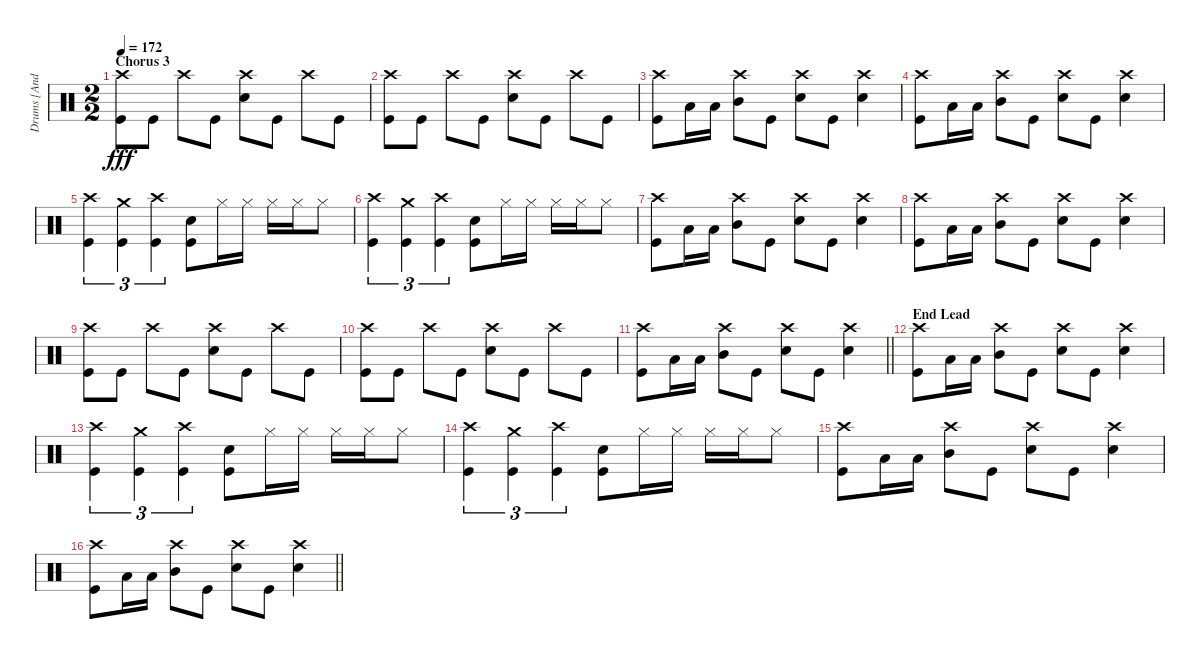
\track ("Drums [Andrew Forsman]" "Drums [And") {instrument percussion}
\staff {score}
\articulation defaults
\ts (2 2)
\section ("" "Chorus 3")
\tempo 172
\clef neutral
\ks c
("Crash high (hit)" "Kick (hit)").8{dy fff} "Kick (hit)".8 "Crash high (hit)".8 "Kick (hit)".8 ("Crash high (hit)" "Snare (hit) 2").8 "Kick (hit)".8 "Crash high (hit)".8 "Kick (hit)".8 |
("Crash high (hit)" "Kick (hit)").8 "Kick (hit)".8 "Crash high (hit)".8 "Kick (hit)".8 ("Crash high (hit)" "Snare (hit) 2").8 "Kick (hit)".8 "Crash high (hit)".8 "Kick (hit)".8 |
("Kick (hit)" "Crash high (hit)").8 "Low Tom (hit)".16 "Low Tom (hit)".16 ("Mid Tom (hit)" "Crash high (hit)").8 "Kick (hit)".8 ("Snare (hit) 2" "Crash high (hit)").8 "Kick (hit)".8 ("Snare (hit) 2" "Crash high (hit)").4 |
("Kick (hit)" "Crash high (hit)").8 "Low Tom (hit)".16 "Low Tom (hit)".16 ("Mid Tom (hit)" "Crash high (hit)").8 "Kick (hit)".8 ("Snare (hit) 2" "Crash high (hit)").8 "Kick (hit)".8 ("Snare (hit) 2" "Crash high (hit)").4 |
("Kick (hit)" "Crash high (hit)").4{tu (3 2)} ("Kick (hit)" "Crash medium (hit)").4{tu (3 2)} ("Kick (hit)" "Crash high (hit)").4{tu (3 2)} ("Snare (hit) 2" "Kick (hit)").8 "Hi-Hat (closed)".16 "Hi-Hat (closed)".16 "Hi-Hat (closed)".16 "Hi-Hat (closed)".16 "Hi-Hat (closed)".8 |
("Kick (hit)" "Crash high (hit)").4{tu (3 2)} ("Kick (hit)" "Crash medium (hit)").4{tu (3 2)} ("Kick (hit)" "Crash high (hit)").4{tu (3 2)} ("Snare (hit) 2" "Kick (hit)").8 "Hi-Hat (closed)".16 "Hi-Hat (closed)".16 "Hi-Hat (closed)".16 "Hi-Hat (closed)".16 "Hi-Hat (closed)".8 |
("Kick (hit)" "Crash high (hit)").8 "Low Tom (hit)".16 "Low Tom (hit)".16 ("Mid Tom (hit)" "Crash high (hit)").8 "Kick (hit)".8 ("Snare (hit) 2" "Crash high (hit)").8 "Kick (hit)".8 ("Snare (hit) 2" "Crash high (hit)").4 |
("Kick (hit)" "Crash high (hit)").8 "Low Tom (hit)".16 "Low Tom (hit)".16 ("Mid Tom (hit)" "Crash high (hit)").8 "Kick (hit)".8 ("Snare (hit) 2" "Crash high (hit)").8 "Kick (hit)".8 ("Snare (hit) 2" "Crash high (hit)").4 |
("Crash high (hit)" "Kick (hit)").8 "Kick (hit)".8 "Crash high (hit)".8 "Kick (hit)".8 ("Crash high (hit)" "Snare (hit) 2").8 "Kick (hit)".8 "Crash high (hit)".8 "Kick (hit)".8 |
("Crash high (hit)" "Kick (hit)").8 "Kick (hit)".8 "Crash high (hit)".8 "Kick (hit)".8 ("Crash high (hit)" "Snare (hit) 2").8 "Kick (hit)".8 "Crash high (hit)".8 "Kick (hit)".8 |
\barLineRight lightlight
("Kick (hit)" "Crash high (hit)").8 "Low Tom (hit)".16 "Low Tom (hit)".16 ("Mid Tom (hit)" "Crash high (hit)").8 "Kick (hit)".8 ("Snare (hit) 2" "Crash high (hit)").8 "Kick (hit)".8 ("Snare (hit) 2" "Crash high (hit)").4 |
\section ("" "End Lead")
("Kick (hit)" "Crash high (hit)").8 "Low Tom (hit)".16 "Low Tom (hit)".16 ("Mid Tom (hit)" "Crash high (hit)").8 "Kick (hit)".8 ("Snare (hit) 2" "Crash high (hit)").8 "Kick (hit)".8 ("Snare (hit) 2" "Crash high (hit)").4 |
("Kick (hit)" "Crash high (hit)").4{tu (3 2)} ("Kick (hit)" "Crash medium (hit)").4{tu (3 2)} ("Kick (hit)" "Crash high (hit)").4{tu (3 2)} ("Snare (hit) 2" "Kick (hit)").8 "Hi-Hat (closed)".16 "Hi-Hat (closed)".16 "Hi-Hat (closed)".16 "Hi-Hat (closed)".16 "Hi-Hat (closed)".8 |
("Kick (hit)" "Crash high (hit)").4{tu (3 2)} ("Kick (hit)" "Crash medium (hit)").4{tu (3 2)} ("Kick (hit)" "Crash high (hit)").4{tu (3 2)} ("Snare (hit) 2" "Kick (hit)").8 "Hi-Hat (closed)".16 "Hi-Hat (closed)".16 "Hi-Hat (closed)".16 "Hi-Hat (closed)".16 "Hi-Hat (closed)".8 |
("Kick (hit)" "Crash high (hit)").8 "Low Tom (hit)".16 "Low Tom (hit)".16 ("Mid Tom (hit)" "Crash high (hit)").8 "Kick (hit)".8 ("Snare (hit) 2" "Crash high (hit)").8 "Kick (hit)".8 ("Snare (hit) 2" "Crash high (hit)").4 |
\barLineRight lightlight
("Kick (hit)" "Crash high (hit)").8 "Low Tom (hit)".16 "Low Tom (hit)".16 ("Mid Tom (hit)" "Crash high (hit)").8 "Kick (hit)".8 ("Snare (hit) 2" "Crash high (hit)").8 "Kick (hit)".8 ("Snare (hit) 2" "Crash high (hit)").4
